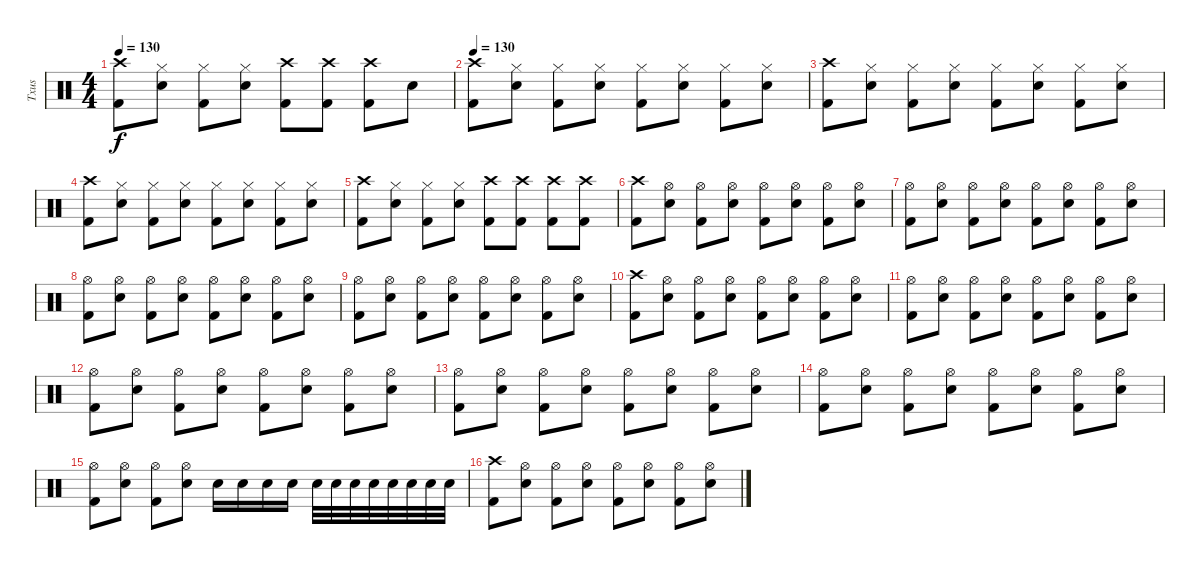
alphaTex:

\track ("Txus" "Txus") {instrument percussion}
\staff {score}
\articulation defaults
\ts (4 4)
\tempo 130
\clef neutral
\ks c
("Crash high (hit)" "Kick (hit) 2").8{dy f} ("Hi-Hat (closed)" "Snare (hit) 2").8 ("Hi-Hat (closed)" "Kick (hit) 2").8 ("Hi-Hat (closed)" "Snare (hit) 2").8 ("Kick (hit) 2" "Crash high (hit)").8 ("Kick (hit) 2" "Crash high (hit)").8 ("Kick (hit) 2" "Crash high (hit)").8 "Snare (hit) 2".8 |
\tempo 200
\tempo 130
("Crash high (hit)" "Kick (hit) 2").8 ("Hi-Hat (closed)" "Snare (hit) 2").8 ("Hi-Hat (closed)" "Kick (hit) 2").8 ("Hi-Hat (closed)" "Snare (hit) 2").8 ("Hi-Hat (closed)" "Kick (hit) 2").8 ("Hi-Hat (closed)" "Snare (hit) 2").8 ("Hi-Hat (closed)" "Kick (hit) 2").8 ("Hi-Hat (closed)" "Snare (hit) 2").8 |
("Crash high (hit)" "Kick (hit) 2").8 ("Hi-Hat (closed)" "Snare (hit) 2").8 ("Hi-Hat (closed)" "Kick (hit) 2").8 ("Hi-Hat (closed)" "Snare (hit) 2").8 ("Hi-Hat (closed)" "Kick (hit) 2").8 ("Hi-Hat (closed)" "Snare (hit) 2").8 ("Hi-Hat (closed)" "Kick (hit) 2").8 ("Hi-Hat (closed)" "Snare (hit) 2").8 |
("Crash high (hit)" "Kick (hit) 2").8 ("Hi-Hat (closed)" "Snare (hit) 2").8 ("Hi-Hat (closed)" "Kick (hit) 2").8 ("Hi-Hat (closed)" "Snare (hit) 2").8 ("Hi-Hat (closed)" "Kick (hit) 2").8 ("Hi-Hat (closed)" "Snare (hit) 2").8 ("Hi-Hat (closed)" "Kick (hit) 2").8 ("Hi-Hat (closed)" "Snare (hit) 2").8 |
("Crash high (hit)" "Kick (hit) 2").8 ("Hi-Hat (closed)" "Snare (hit) 2").8 ("Hi-Hat (closed)" "Kick (hit) 2").8 ("Hi-Hat (closed)" "Snare (hit) 2").8 ("Crash high (hit)" "Kick (hit) 2").8 ("Crash high (hit)" "Kick (hit) 2").8 ("Crash high (hit)" "Kick (hit) 2").8 ("Crash high (hit)" "Kick (hit) 2").8 |
("Crash high (hit)" "Kick (hit) 2").8 ("Hi-Hat (open)" "Snare (hit) 2").8 ("Hi-Hat (open)" "Kick (hit) 2").8 ("Hi-Hat (open)" "Snare (hit) 2").8 ("Hi-Hat (open)" "Kick (hit) 2").8 ("Hi-Hat (open)" "Snare (hit) 2").8 ("Hi-Hat (open)" "Kick (hit) 2").8 ("Hi-Hat (open)" "Snare (hit) 2").8 |
("Hi-Hat (open)" "Kick (hit) 2").8 ("Hi-Hat (open)" "Snare (hit) 2").8 ("Hi-Hat (open)" "Kick (hit) 2").8 ("Hi-Hat (open)" "Snare (hit) 2").8 ("Hi-Hat (open)" "Kick (hit) 2").8 ("Hi-Hat (open)" "Snare (hit) 2").8 ("Hi-Hat (open)" "Kick (hit) 2").8 ("Hi-Hat (open)" "Snare (hit) 2").8 |
("Hi-Hat (open)" "Kick (hit) 2").8 ("Hi-Hat (open)" "Snare (hit) 2").8 ("Hi-Hat (open)" "Kick (hit) 2").8 ("Hi-Hat (open)" "Snare (hit) 2").8 ("Hi-Hat (open)" "Kick (hit) 2").8 ("Hi-Hat (open)" "Snare (hit) 2").8 ("Hi-Hat (open)" "Kick (hit) 2").8 ("Hi-Hat (open)" "Snare (hit) 2").8 |
("Hi-Hat (open)" "Kick (hit) 2").8 ("Hi-Hat (open)" "Snare (hit) 2").8 ("Hi-Hat (open)" "Kick (hit) 2").8 ("Hi-Hat (open)" "Snare (hit) 2").8 ("Hi-Hat (open)" "Kick (hit) 2").8 ("Hi-Hat (open)" "Snare (hit) 2").8 ("Hi-Hat (open)" "Kick (hit) 2").8 ("Hi-Hat (open)" "Snare (hit) 2").8 |
("Crash high (hit)" "Kick (hit) 2").8 ("Hi-Hat (open)" "Snare (hit) 2").8 ("Hi-Hat (open)" "Kick (hit) 2").8 ("Hi-Hat (open)" "Snare (hit) 2").8 ("Hi-Hat (open)" "Kick (hit) 2").8 ("Hi-Hat (open)" "Snare (hit) 2").8 ("Hi-Hat (open)" "Kick (hit) 2").8 ("Hi-Hat (open)" "Snare (hit) 2").8 |
("Hi-Hat (open)" "Kick (hit) 2").8 ("Hi-Hat (open)" "Snare (hit) 2").8 ("Hi-Hat (open)" "Kick (hit) 2").8 ("Hi-Hat (open)" "Snare (hit) 2").8 ("Hi-Hat (open)" "Kick (hit) 2").8 ("Hi-Hat (open)" "Snare (hit) 2").8 ("Hi-Hat (open)" "Kick (hit) 2").8 ("Hi-Hat (open)" "Snare (hit) 2").8 |
("Hi-Hat (open)" "Kick (hit) 2").8 ("Hi-Hat (open)" "Snare (hit) 2").8 ("Hi-Hat (open)" "Kick (hit) 2").8 ("Hi-Hat (open)" "Snare (hit) 2").8 ("Hi-Hat (open)" "Kick (hit) 2").8 ("Hi-Hat (open)" "Snare (hit) 2").8 ("Hi-Hat (open)" "Kick (hit) 2").8 ("Hi-Hat (open)" "Snare (hit) 2").8 |
("Hi-Hat (open)" "Kick (hit) 2").8 ("Hi-Hat (open)" "Snare (hit) 2").8 ("Hi-Hat (open)" "Kick (hit) 2").8 ("Hi-Hat (open)" "Snare (hit) 2").8 ("Hi-Hat (open)" "Kick (hit) 2").8 ("Hi-Hat (open)" "Snare (hit) 2").8 ("Hi-Hat (open)" "Kick (hit) 2").8 ("Hi-Hat (open)" "Snare (hit) 2").8 |
("Hi-Hat (open)" "Kick (hit) 2").8 ("Hi-Hat (open)" "Snare (hit) 2").8 ("Hi-Hat (open)" "Kick (hit) 2").8 ("Hi-Hat (open)" "Snare (hit) 2").8 ("Hi-Hat (open)" "Kick (hit) 2").8 ("Hi-Hat (open)" "Snare (hit) 2").8 ("Hi-Hat (open)" "Kick (hit) 2").8 ("Hi-Hat (open)" "Snare (hit) 2").8 |
("Hi-Hat (open)" "Kick (hit) 2").8 ("Hi-Hat (open)" "Snare (hit) 2").8 ("Hi-Hat (open)" "Kick (hit) 2").8 ("Hi-Hat (open)" "Snare (hit) 2").8 "Snare (hit) 2".16 "Snare (hit) 2".16 "Snare (hit) 2".16 "Snare (hit) 2".16 "Snare (hit) 2".32 "Snare (hit) 2".32 "Snare (hit) 2".32 "Snare (hit) 2".32 "Snare (hit) 2".32 "Snare (hit) 2".32 "Snare (hit) 2".32 "Snare (hit) 2".32 |
("Crash high (hit)" "Kick (hit) 2").8 ("Hi-Hat (open)" "Snare (hit) 2").8 ("Hi-Hat (open)" "Kick (hit) 2").8 ("Hi-Hat (open)" "Snare (hit) 2").8 ("Hi-Hat (open)" "Kick (hit) 2").8 ("Hi-Hat (open)" "Snare (hit) 2").8 ("Hi-Hat (open)" "Kick (hit) 2").8 ("Hi-Hat (open)" "Snare (hit) 2").8
